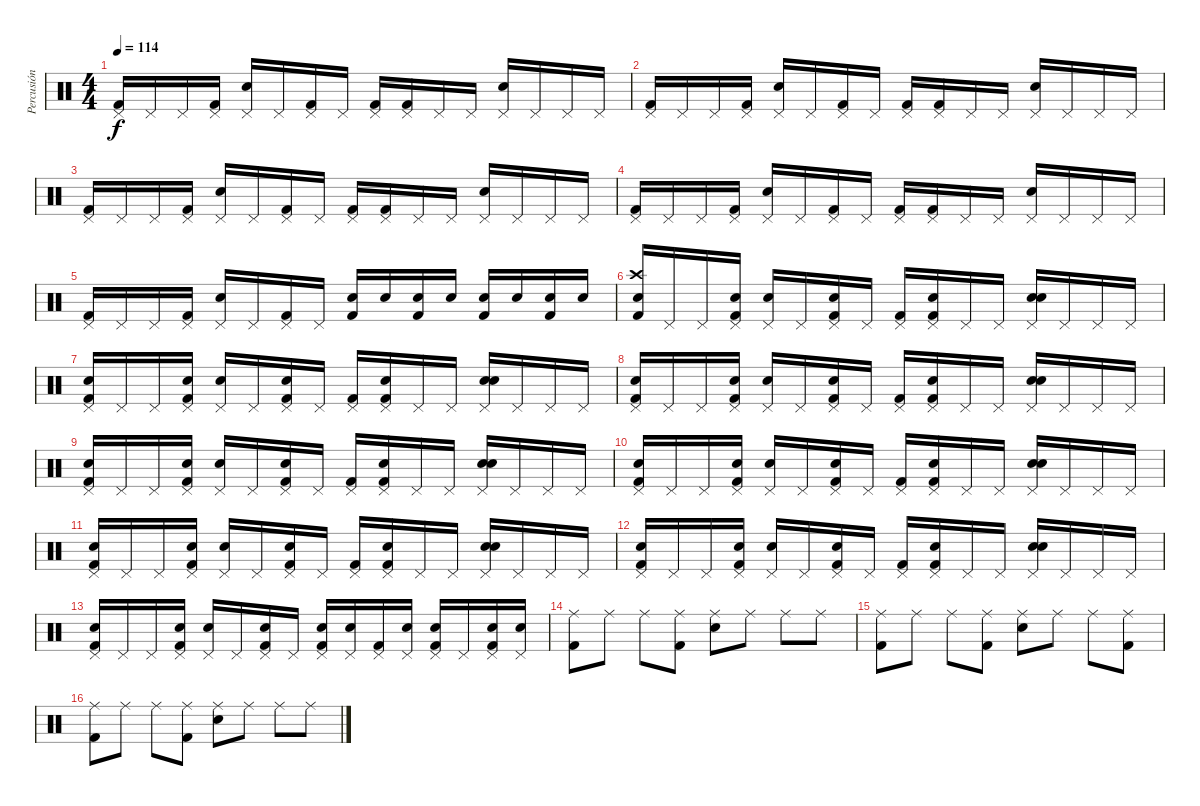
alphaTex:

\track ("Percusión" "Percusión") {instrument percussion}
\staff {score}
\articulation defaults
\ts (4 4)
\tempo 114
\clef neutral
\ks c
("Pedal Hi-Hat (hit)" "Kick (hit) 2").16{dy f} "Pedal Hi-Hat (hit)".16 "Pedal Hi-Hat (hit)".16 ("Pedal Hi-Hat (hit)" "Kick (hit) 2").16 ("Pedal Hi-Hat (hit)" "Snare (hit) 2").16 "Pedal Hi-Hat (hit)".16 ("Pedal Hi-Hat (hit)" "Kick (hit) 2").16 "Pedal Hi-Hat (hit)".16 ("Pedal Hi-Hat (hit)" "Kick (hit) 2").16 ("Pedal Hi-Hat (hit)" "Kick (hit) 2").16 "Pedal Hi-Hat (hit)".16 "Pedal Hi-Hat (hit)".16 ("Pedal Hi-Hat (hit)" "Snare (hit) 2").16 "Pedal Hi-Hat (hit)".16 "Pedal Hi-Hat (hit)".16 "Pedal Hi-Hat (hit)".16 |
("Pedal Hi-Hat (hit)" "Kick (hit) 2").16 "Pedal Hi-Hat (hit)".16 "Pedal Hi-Hat (hit)".16 ("Pedal Hi-Hat (hit)" "Kick (hit) 2").16 ("Pedal Hi-Hat (hit)" "Snare (hit) 2").16 "Pedal Hi-Hat (hit)".16 ("Pedal Hi-Hat (hit)" "Kick (hit) 2").16 "Pedal Hi-Hat (hit)".16 ("Pedal Hi-Hat (hit)" "Kick (hit) 2").16 ("Pedal Hi-Hat (hit)" "Kick (hit) 2").16 "Pedal Hi-Hat (hit)".16 "Pedal Hi-Hat (hit)".16 ("Pedal Hi-Hat (hit)" "Snare (hit) 2").16 "Pedal Hi-Hat (hit)".16 "Pedal Hi-Hat (hit)".16 "Pedal Hi-Hat (hit)".16 |
("Pedal Hi-Hat (hit)" "Kick (hit) 2").16 "Pedal Hi-Hat (hit)".16 "Pedal Hi-Hat (hit)".16 ("Pedal Hi-Hat (hit)" "Kick (hit) 2").16 ("Pedal Hi-Hat (hit)" "Snare (hit) 2").16 "Pedal Hi-Hat (hit)".16 ("Pedal Hi-Hat (hit)" "Kick (hit) 2").16 "Pedal Hi-Hat (hit)".16 ("Pedal Hi-Hat (hit)" "Kick (hit) 2").16 ("Pedal Hi-Hat (hit)" "Kick (hit) 2").16 "Pedal Hi-Hat (hit)".16 "Pedal Hi-Hat (hit)".16 ("Pedal Hi-Hat (hit)" "Snare (hit) 2").16 "Pedal Hi-Hat (hit)".16 "Pedal Hi-Hat (hit)".16 "Pedal Hi-Hat (hit)".16 |
("Pedal Hi-Hat (hit)" "Kick (hit) 2").16 "Pedal Hi-Hat (hit)".16 "Pedal Hi-Hat (hit)".16 ("Pedal Hi-Hat (hit)" "Kick (hit) 2").16 ("Pedal Hi-Hat (hit)" "Snare (hit) 2").16 "Pedal Hi-Hat (hit)".16 ("Pedal Hi-Hat (hit)" "Kick (hit) 2").16 "Pedal Hi-Hat (hit)".16 ("Pedal Hi-Hat (hit)" "Kick (hit) 2").16 ("Pedal Hi-Hat (hit)" "Kick (hit) 2").16 "Pedal Hi-Hat (hit)".16 "Pedal Hi-Hat (hit)".16 ("Pedal Hi-Hat (hit)" "Snare (hit) 2").16 "Pedal Hi-Hat (hit)".16 "Pedal Hi-Hat (hit)".16 "Pedal Hi-Hat (hit)".16 |
("Pedal Hi-Hat (hit)" "Kick (hit) 2").16 "Pedal Hi-Hat (hit)".16 "Pedal Hi-Hat (hit)".16 ("Pedal Hi-Hat (hit)" "Kick (hit) 2").16 ("Pedal Hi-Hat (hit)" "Snare (hit) 2").16 "Pedal Hi-Hat (hit)".16 ("Pedal Hi-Hat (hit)" "Kick (hit) 2").16 "Pedal Hi-Hat (hit)".16 ("Snare (hit) 2" "Kick (hit) 2").16 "Snare (hit) 2".16 ("Snare (hit) 2" "Kick (hit) 2").16 "Snare (hit) 2".16 ("Snare (hit) 2" "Kick (hit) 2").16 "Snare (hit) 2".16 ("Snare (hit) 2" "Kick (hit) 2").16 "Snare (hit) 2".16 |
("Crash high (hit)" "Hand Clap (hit)" "Kick (hit) 2").16 "Pedal Hi-Hat (hit)".16 "Pedal Hi-Hat (hit)".16 ("Pedal Hi-Hat (hit)" "Hand Clap (hit)" "Kick (hit) 2").16 ("Pedal Hi-Hat (hit)" "Snare (hit) 2").16 "Pedal Hi-Hat (hit)".16 ("Pedal Hi-Hat (hit)" "Hand Clap (hit)" "Kick (hit) 2").16 "Pedal Hi-Hat (hit)".16 ("Pedal Hi-Hat (hit)" "Kick (hit) 2").16 ("Pedal Hi-Hat (hit)" "Hand Clap (hit)" "Kick (hit) 2").16 "Pedal Hi-Hat (hit)".16 "Pedal Hi-Hat (hit)".16 ("Pedal Hi-Hat (hit)" "Hand Clap (hit)" "Snare (hit) 2").16 "Pedal Hi-Hat (hit)".16 "Pedal Hi-Hat (hit)".16 "Pedal Hi-Hat (hit)".16 |
("Pedal Hi-Hat (hit)" "Hand Clap (hit)" "Kick (hit) 2").16 "Pedal Hi-Hat (hit)".16 "Pedal Hi-Hat (hit)".16 ("Pedal Hi-Hat (hit)" "Hand Clap (hit)" "Kick (hit) 2").16 ("Pedal Hi-Hat (hit)" "Snare (hit) 2").16 "Pedal Hi-Hat (hit)".16 ("Pedal Hi-Hat (hit)" "Hand Clap (hit)" "Kick (hit) 2").16 "Pedal Hi-Hat (hit)".16 ("Pedal Hi-Hat (hit)" "Kick (hit) 2").16 ("Pedal Hi-Hat (hit)" "Hand Clap (hit)" "Kick (hit) 2").16 "Pedal Hi-Hat (hit)".16 "Pedal Hi-Hat (hit)".16 ("Pedal Hi-Hat (hit)" "Hand Clap (hit)" "Snare (hit) 2").16 "Pedal Hi-Hat (hit)".16 "Pedal Hi-Hat (hit)".16 "Pedal Hi-Hat (hit)".16 |
("Pedal Hi-Hat (hit)" "Hand Clap (hit)" "Kick (hit) 2").16 "Pedal Hi-Hat (hit)".16 "Pedal Hi-Hat (hit)".16 ("Pedal Hi-Hat (hit)" "Hand Clap (hit)" "Kick (hit) 2").16 ("Pedal Hi-Hat (hit)" "Snare (hit) 2").16 "Pedal Hi-Hat (hit)".16 ("Pedal Hi-Hat (hit)" "Hand Clap (hit)" "Kick (hit) 2").16 "Pedal Hi-Hat (hit)".16 ("Pedal Hi-Hat (hit)" "Kick (hit) 2").16 ("Pedal Hi-Hat (hit)" "Hand Clap (hit)" "Kick (hit) 2").16 "Pedal Hi-Hat (hit)".16 "Pedal Hi-Hat (hit)".16 ("Pedal Hi-Hat (hit)" "Hand Clap (hit)" "Snare (hit) 2").16 "Pedal Hi-Hat (hit)".16 "Pedal Hi-Hat (hit)".16 "Pedal Hi-Hat (hit)".16 |
("Pedal Hi-Hat (hit)" "Hand Clap (hit)" "Kick (hit) 2").16 "Pedal Hi-Hat (hit)".16 "Pedal Hi-Hat (hit)".16 ("Pedal Hi-Hat (hit)" "Hand Clap (hit)" "Kick (hit) 2").16 ("Pedal Hi-Hat (hit)" "Snare (hit) 2").16 "Pedal Hi-Hat (hit)".16 ("Pedal Hi-Hat (hit)" "Hand Clap (hit)" "Kick (hit) 2").16 "Pedal Hi-Hat (hit)".16 ("Pedal Hi-Hat (hit)" "Kick (hit) 2").16 ("Pedal Hi-Hat (hit)" "Hand Clap (hit)" "Kick (hit) 2").16 "Pedal Hi-Hat (hit)".16 "Pedal Hi-Hat (hit)".16 ("Pedal Hi-Hat (hit)" "Hand Clap (hit)" "Snare (hit) 2").16 "Pedal Hi-Hat (hit)".16 "Pedal Hi-Hat (hit)".16 "Pedal Hi-Hat (hit)".16 |
("Pedal Hi-Hat (hit)" "Hand Clap (hit)" "Kick (hit) 2").16 "Pedal Hi-Hat (hit)".16 "Pedal Hi-Hat (hit)".16 ("Pedal Hi-Hat (hit)" "Hand Clap (hit)" "Kick (hit) 2").16 ("Pedal Hi-Hat (hit)" "Snare (hit) 2").16 "Pedal Hi-Hat (hit)".16 ("Pedal Hi-Hat (hit)" "Hand Clap (hit)" "Kick (hit) 2").16 "Pedal Hi-Hat (hit)".16 ("Pedal Hi-Hat (hit)" "Kick (hit) 2").16 ("Pedal Hi-Hat (hit)" "Hand Clap (hit)" "Kick (hit) 2").16 "Pedal Hi-Hat (hit)".16 "Pedal Hi-Hat (hit)".16 ("Pedal Hi-Hat (hit)" "Hand Clap (hit)" "Snare (hit) 2").16 "Pedal Hi-Hat (hit)".16 "Pedal Hi-Hat (hit)".16 "Pedal Hi-Hat (hit)".16 |
("Pedal Hi-Hat (hit)" "Hand Clap (hit)" "Kick (hit) 2").16 "Pedal Hi-Hat (hit)".16 "Pedal Hi-Hat (hit)".16 ("Pedal Hi-Hat (hit)" "Hand Clap (hit)" "Kick (hit) 2").16 ("Pedal Hi-Hat (hit)" "Snare (hit) 2").16 "Pedal Hi-Hat (hit)".16 ("Pedal Hi-Hat (hit)" "Hand Clap (hit)" "Kick (hit) 2").16 "Pedal Hi-Hat (hit)".16 ("Pedal Hi-Hat (hit)" "Kick (hit) 2").16 ("Pedal Hi-Hat (hit)" "Hand Clap (hit)" "Kick (hit) 2").16 "Pedal Hi-Hat (hit)".16 "Pedal Hi-Hat (hit)".16 ("Pedal Hi-Hat (hit)" "Hand Clap (hit)" "Snare (hit) 2").16 "Pedal Hi-Hat (hit)".16 "Pedal Hi-Hat (hit)".16 "Pedal Hi-Hat (hit)".16 |
("Pedal Hi-Hat (hit)" "Hand Clap (hit)" "Kick (hit) 2").16 "Pedal Hi-Hat (hit)".16 "Pedal Hi-Hat (hit)".16 ("Pedal Hi-Hat (hit)" "Hand Clap (hit)" "Kick (hit) 2").16 ("Pedal Hi-Hat (hit)" "Snare (hit) 2").16 "Pedal Hi-Hat (hit)".16 ("Pedal Hi-Hat (hit)" "Hand Clap (hit)" "Kick (hit) 2").16 "Pedal Hi-Hat (hit)".16 ("Pedal Hi-Hat (hit)" "Kick (hit) 2").16 ("Pedal Hi-Hat (hit)" "Hand Clap (hit)" "Kick (hit) 2").16 "Pedal Hi-Hat (hit)".16 "Pedal Hi-Hat (hit)".16 ("Pedal Hi-Hat (hit)" "Hand Clap (hit)" "Snare (hit) 2").16 "Pedal Hi-Hat (hit)".16 "Pedal Hi-Hat (hit)".16 "Pedal Hi-Hat (hit)".16 |
("Pedal Hi-Hat (hit)" "Hand Clap (hit)" "Kick (hit) 2").16 "Pedal Hi-Hat (hit)".16 "Pedal Hi-Hat (hit)".16 ("Pedal Hi-Hat (hit)" "Hand Clap (hit)" "Kick (hit) 2").16 ("Pedal Hi-Hat (hit)" "Snare (hit) 2").16 "Pedal Hi-Hat (hit)".16 ("Pedal Hi-Hat (hit)" "Hand Clap (hit)" "Kick (hit) 2").16 "Pedal Hi-Hat (hit)".16 ("Pedal Hi-Hat (hit)" "Snare (hit) 2" "Kick (hit) 2").16 ("Pedal Hi-Hat (hit)" "Hand Clap (hit)").16 ("Pedal Hi-Hat (hit)" "Kick (hit) 2").16 ("Pedal Hi-Hat (hit)" "Snare (hit) 2").16 ("Pedal Hi-Hat (hit)" "Hand Clap (hit)" "Kick (hit) 2").16 "Pedal Hi-Hat (hit)".16 ("Pedal Hi-Hat (hit)" "Snare (hit) 2" "Kick (hit) 2").16 ("Pedal Hi-Hat (hit)" "Snare (hit) 2").16 |
("Ride (middle)" "Kick (hit) 2").8 "Ride (middle)".8 "Ride (middle)".8 ("Ride (middle)" "Kick (hit) 2").8 ("Ride (middle)" "Snare (hit) 2").8 "Ride (middle)".8 "Ride (middle)".8 "Ride (middle)".8 |
("Ride (middle)" "Kick (hit) 2").8 "Ride (middle)".8 "Ride (middle)".8 ("Ride (middle)" "Kick (hit) 2").8 ("Ride (middle)" "Snare (hit) 2").8 "Ride (middle)".8 "Ride (middle)".8 ("Ride (middle)" "Kick (hit) 2").8 |
("Ride (middle)" "Kick (hit) 2").8 "Ride (middle)".8 "Ride (middle)".8 ("Ride (middle)" "Kick (hit) 2").8 ("Ride (middle)" "Snare (hit) 2").8 "Ride (middle)".8 "Ride (middle)".8 "Ride (middle)".8
